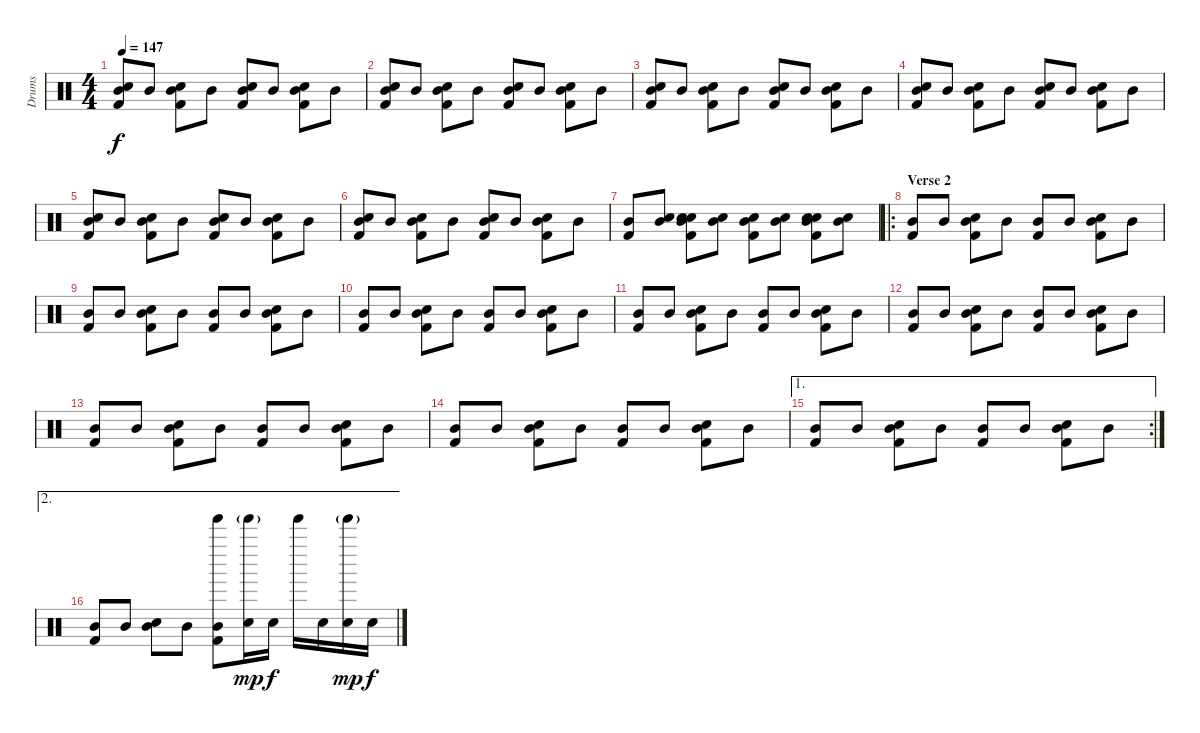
\track ("Drums" "Drums") {instrument percussion}
\staff {score}
\articulation defaults
\ts (4 4)
\tempo 147
\clef neutral
\ks c
("Mid Tom (hit)" "Hand Clap (hit)" "Kick (hit) 2").8{dy f} "Mid Tom (hit)".8 ("Mid Tom (hit)" "Electric Snare (hit)" "Kick (hit) 2").8 "Mid Tom (hit)".8 ("Mid Tom (hit)" "Hand Clap (hit)" "Kick (hit) 2").8 "Mid Tom (hit)".8 ("Mid Tom (hit)" "Electric Snare (hit)" "Kick (hit) 2").8 "Mid Tom (hit)".8 |
("Mid Tom (hit)" "Hand Clap (hit)" "Kick (hit) 2").8 "Mid Tom (hit)".8 ("Mid Tom (hit)" "Electric Snare (hit)" "Kick (hit) 2").8 "Mid Tom (hit)".8 ("Mid Tom (hit)" "Hand Clap (hit)" "Kick (hit) 2").8 "Mid Tom (hit)".8 ("Mid Tom (hit)" "Electric Snare (hit)" "Kick (hit) 2").8 "Mid Tom (hit)".8 |
("Mid Tom (hit)" "Hand Clap (hit)" "Kick (hit) 2").8 "Mid Tom (hit)".8 ("Mid Tom (hit)" "Electric Snare (hit)" "Kick (hit) 2").8 "Mid Tom (hit)".8 ("Mid Tom (hit)" "Hand Clap (hit)" "Kick (hit) 2").8 "Mid Tom (hit)".8 ("Mid Tom (hit)" "Electric Snare (hit)" "Kick (hit) 2").8 "Mid Tom (hit)".8 |
("Mid Tom (hit)" "Hand Clap (hit)" "Kick (hit) 2").8 "Mid Tom (hit)".8 ("Mid Tom (hit)" "Electric Snare (hit)" "Kick (hit) 2").8 "Mid Tom (hit)".8 ("Mid Tom (hit)" "Hand Clap (hit)" "Kick (hit) 2").8 "Mid Tom (hit)".8 ("Mid Tom (hit)" "Electric Snare (hit)" "Kick (hit) 2").8 "Mid Tom (hit)".8 |
("Mid Tom (hit)" "Hand Clap (hit)" "Kick (hit) 2").8 "Mid Tom (hit)".8 ("Mid Tom (hit)" "Electric Snare (hit)" "Kick (hit) 2").8 "Mid Tom (hit)".8 ("Mid Tom (hit)" "Hand Clap (hit)" "Kick (hit) 2").8 "Mid Tom (hit)".8 ("Mid Tom (hit)" "Electric Snare (hit)" "Kick (hit) 2").8 "Mid Tom (hit)".8 |
("Mid Tom (hit)" "Hand Clap (hit)" "Kick (hit) 2").8 "Mid Tom (hit)".8 ("Mid Tom (hit)" "Electric Snare (hit)" "Kick (hit) 2").8 "Mid Tom (hit)".8 ("Mid Tom (hit)" "Hand Clap (hit)" "Kick (hit) 2").8 "Mid Tom (hit)".8 ("Mid Tom (hit)" "Electric Snare (hit)" "Kick (hit) 2").8 "Mid Tom (hit)".8 |
("Mid Tom (hit)" "Kick (hit) 2").8 ("Mid Tom (hit)" "Electric Snare (hit)").8 ("Mid Tom (hit)" "Electric Snare (hit)" "Hand Clap (hit)" "Kick (hit) 2").8 ("Mid Tom (hit)" "Electric Snare (hit)").8 ("Mid Tom (hit)" "Electric Snare (hit)" "Kick (hit) 2").8 ("Mid Tom (hit)" "Electric Snare (hit)").8 ("Mid Tom (hit)" "Electric Snare (hit)" "Hand Clap (hit)" "Kick (hit) 2").8 ("Mid Tom (hit)" "Electric Snare (hit)").8 |
\ro
\section ("" "Verse 2")
("Mid Tom (hit)" "Kick (hit) 2").8 "Mid Tom (hit)".8 ("Mid Tom (hit)" "Electric Snare (hit)" "Kick (hit) 2").8 "Mid Tom (hit)".8 ("Mid Tom (hit)" "Kick (hit) 2").8 "Mid Tom (hit)".8 ("Mid Tom (hit)" "Electric Snare (hit)" "Kick (hit) 2").8 "Mid Tom (hit)".8 |
("Mid Tom (hit)" "Kick (hit) 2").8 "Mid Tom (hit)".8 ("Mid Tom (hit)" "Electric Snare (hit)" "Kick (hit) 2").8 "Mid Tom (hit)".8 ("Mid Tom (hit)" "Kick (hit) 2").8 "Mid Tom (hit)".8 ("Mid Tom (hit)" "Electric Snare (hit)" "Kick (hit) 2").8 "Mid Tom (hit)".8 |
("Mid Tom (hit)" "Kick (hit) 2").8 "Mid Tom (hit)".8 ("Mid Tom (hit)" "Electric Snare (hit)" "Kick (hit) 2").8 "Mid Tom (hit)".8 ("Mid Tom (hit)" "Kick (hit) 2").8 "Mid Tom (hit)".8 ("Mid Tom (hit)" "Electric Snare (hit)" "Kick (hit) 2").8 "Mid Tom (hit)".8 |
("Mid Tom (hit)" "Kick (hit) 2").8 "Mid Tom (hit)".8 ("Mid Tom (hit)" "Electric Snare (hit)" "Kick (hit) 2").8 "Mid Tom (hit)".8 ("Mid Tom (hit)" "Kick (hit) 2").8 "Mid Tom (hit)".8 ("Mid Tom (hit)" "Electric Snare (hit)" "Kick (hit) 2").8 "Mid Tom (hit)".8 |
("Mid Tom (hit)" "Kick (hit) 2").8 "Mid Tom (hit)".8 ("Mid Tom (hit)" "Electric Snare (hit)" "Kick (hit) 2").8 "Mid Tom (hit)".8 ("Mid Tom (hit)" "Kick (hit) 2").8 "Mid Tom (hit)".8 ("Mid Tom (hit)" "Electric Snare (hit)" "Kick (hit) 2").8 "Mid Tom (hit)".8 |
("Mid Tom (hit)" "Kick (hit) 2").8 "Mid Tom (hit)".8 ("Mid Tom (hit)" "Electric Snare (hit)" "Kick (hit) 2").8 "Mid Tom (hit)".8 ("Mid Tom (hit)" "Kick (hit) 2").8 "Mid Tom (hit)".8 ("Mid Tom (hit)" "Electric Snare (hit)" "Kick (hit) 2").8 "Mid Tom (hit)".8 |
("Mid Tom (hit)" "Kick (hit) 2").8 "Mid Tom (hit)".8 ("Mid Tom (hit)" "Electric Snare (hit)" "Kick (hit) 2").8 "Mid Tom (hit)".8 ("Mid Tom (hit)" "Kick (hit) 2").8 "Mid Tom (hit)".8 ("Mid Tom (hit)" "Electric Snare (hit)" "Kick (hit) 2").8 "Mid Tom (hit)".8 |
\ae 1
\rc 2
("Mid Tom (hit)" "Kick (hit) 2").8 "Mid Tom (hit)".8 ("Mid Tom (hit)" "Electric Snare (hit)" "Kick (hit) 2").8 "Mid Tom (hit)".8 ("Mid Tom (hit)" "Kick (hit) 2").8 "Mid Tom (hit)".8 ("Mid Tom (hit)" "Electric Snare (hit)" "Kick (hit) 2").8 "Mid Tom (hit)".8 |
\ae 2
("Mid Tom (hit)" "Kick (hit) 2").8 "Mid Tom (hit)".8 ("Mid Tom (hit)" "Electric Snare (hit)").8 "Mid Tom (hit)".8 ("Mid Tom (hit)" "Tinkle Bell (hit)" "Kick (hit) 2").8 ("Electric Snare (hit)" "Tinkle Bell (hit)"{g}).16{dy mp} "Electric Snare (hit)".16{dy f} "Tinkle Bell (hit)".16 "Electric Snare (hit)".16 ("Electric Snare (hit)" "Tinkle Bell (hit)"{g}).16{dy mp} "Electric Snare (hit)".16{dy f}
